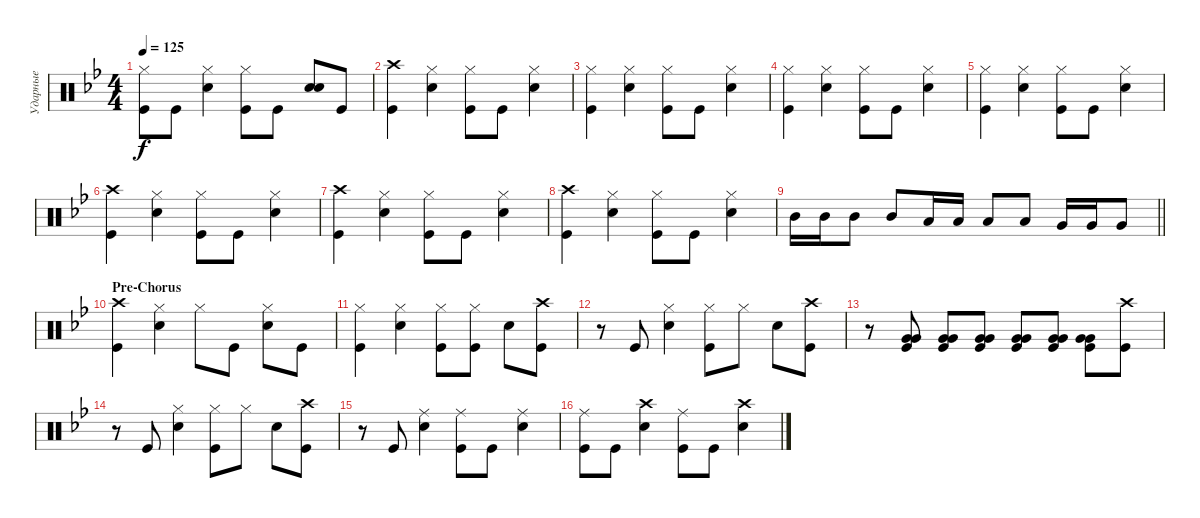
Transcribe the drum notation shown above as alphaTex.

\track ("Ударные" "Ударные") {instrument percussion}
\staff {score}
\articulation defaults
\ts (4 4)
\tempo 125
\clef neutral
\ks gminor
("Kick (hit)" "Hi-Hat (closed)").8{dy f} "Kick (hit)".8 ("Hi-Hat (closed)" "Snare (hit) 2").4 ("Hi-Hat (closed)" "Kick (hit)").8 "Kick (hit)".8 ("Snare (hit) 2" "Snare (hit) 2").8{bd 120} "Kick (hit)".8 |
("Kick (hit)" "Crash high (hit)").4 ("Hi-Hat (closed)" "Snare (hit) 2").4 ("Hi-Hat (closed)" "Kick (hit)").8 "Kick (hit)".8 ("Hi-Hat (closed)" "Snare (hit) 2").4 |
("Kick (hit)" "Hi-Hat (closed)").4 ("Hi-Hat (closed)" "Snare (hit) 2").4 ("Hi-Hat (closed)" "Kick (hit)").8 "Kick (hit)".8 ("Hi-Hat (closed)" "Snare (hit) 2").4 |
("Kick (hit)" "Hi-Hat (closed)").4 ("Hi-Hat (closed)" "Snare (hit) 2").4 ("Hi-Hat (closed)" "Kick (hit)").8 "Kick (hit)".8 ("Hi-Hat (closed)" "Snare (hit) 2").4 |
("Kick (hit)" "Hi-Hat (closed)").4 ("Hi-Hat (closed)" "Snare (hit) 2").4 ("Hi-Hat (closed)" "Kick (hit)").8 "Kick (hit)".8 ("Hi-Hat (closed)" "Snare (hit) 2").4 |
("Kick (hit)" "Crash high (hit)").4 ("Hi-Hat (closed)" "Snare (hit) 2").4 ("Hi-Hat (closed)" "Kick (hit)").8 "Kick (hit)".8 ("Hi-Hat (closed)" "Snare (hit) 2").4 |
("Kick (hit)" "Crash high (hit)").4 ("Hi-Hat (closed)" "Snare (hit) 2").4 ("Hi-Hat (closed)" "Kick (hit)").8 "Kick (hit)".8 ("Hi-Hat (closed)" "Snare (hit) 2").4 |
("Kick (hit)" "Crash high (hit)").4 ("Hi-Hat (closed)" "Snare (hit) 2").4 ("Hi-Hat (closed)" "Kick (hit)").8 "Kick (hit)".8 ("Hi-Hat (closed)" "Snare (hit) 2").4 |
\barLineRight lightlight "Mid Tom (hit)".16 "Mid Tom (hit)".16 "Mid Tom (hit)".8 "Mid Tom (hit)".8 "Low Tom (hit)".16 "Low Tom (hit)".16 "Low Tom (hit)".8 "Low Tom (hit)".8 "Very Low Tom (hit)".16 "Very Low Tom (hit)".16 "Very Low Tom (hit)".8
|
\section ("" "Pre-Chorus")
("Kick (hit)" "Crash high (hit)").4 ("Snare (hit) 2" "Hi-Hat (closed)").4 "Hi-Hat (closed)".8 "Kick (hit)".8 ("Snare (hit) 2" "Hi-Hat (closed)").8 "Kick (hit)".8 |
("Kick (hit)" "Hi-Hat (closed)").4 ("Hi-Hat (closed)" "Snare (hit) 2").4 ("Hi-Hat (closed)" "Kick (hit)").8 ("Kick (hit)" "Hi-Hat (closed)").8 "Snare (hit) 2".8 ("Kick (hit)" "Crash high (hit)").8 |
r.8 "Kick (hit)".8 ("Hi-Hat (closed)" "Snare (hit) 2").4 ("Hi-Hat (closed)" "Kick (hit)").8 "Hi-Hat (closed)".8 "Snare (hit) 2".8 ("Kick (hit)" "Crash high (hit)").8 |
r.8 ("Kick (hit)" "Very Low Tom (hit)" "Very Low Tom (hit)").8{bd 60} ("Kick (hit)" "Very Low Tom (hit)" "Very Low Tom (hit)").8{bd 60} ("Kick (hit)" "Very Low Tom (hit)" "Very Low Tom (hit)").8{bd 60} ("Kick (hit)" "Very Low Tom (hit)" "Very Low Tom (hit)").8{bd 60} ("Kick (hit)" "Very Low Tom (hit)" "Very Low Tom (hit)").8{bd 60} ("Kick (hit)" "Very Low Tom (hit)" "Very Low Tom (hit)").8{bd 60} ("Kick (hit)" "Crash high (hit)").8 |
r.8 "Kick (hit)".8 ("Hi-Hat (closed)" "Snare (hit) 2").4 ("Hi-Hat (closed)" "Kick (hit)").8 "Hi-Hat (closed)".8 "Snare (hit) 2".8 ("Kick (hit)" "Crash high (hit)").8 |
r.8 "Kick (hit)".8 ("Ride (middle)" "Snare (hit) 2").4 ("Ride (middle)" "Kick (hit)").8 "Kick (hit)".8 ("Ride (middle)" "Snare (hit) 2").4 |
("Kick (hit)" "Ride (middle)").8 "Kick (hit)".8 ("Snare (hit) 2" "Crash high (hit)").4 ("Kick (hit)" "Ride (middle)").8 "Kick (hit)".8 ("Snare (hit) 2" "Crash high (hit)").4
